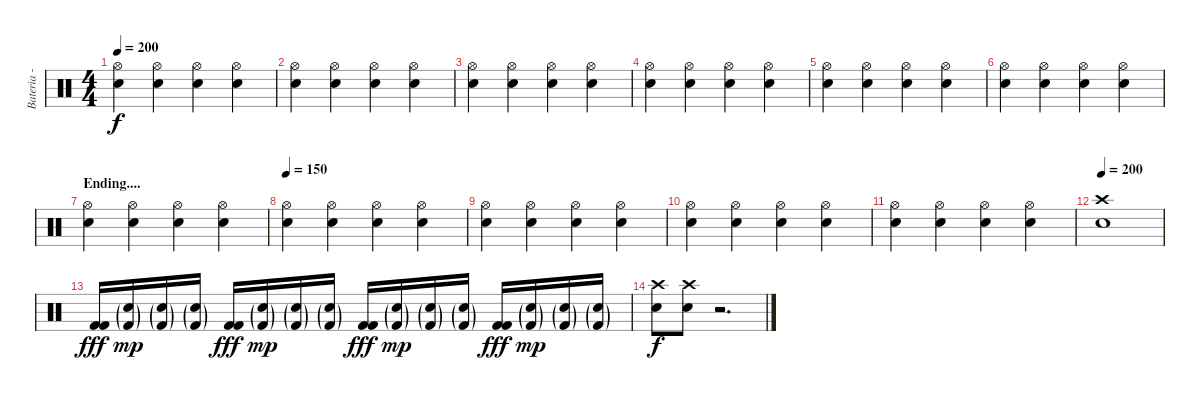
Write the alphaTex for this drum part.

\track ("Bateria - Larzon" "Bateria - ") {instrument percussion}
\staff {score}
\articulation defaults
\ts (4 4)
\tempo 200
\clef neutral
\ks c
("Snare (hit) 2" "Hi-Hat (open)").4{dy f} ("Snare (hit) 2" "Hi-Hat (open)").4 ("Snare (hit) 2" "Hi-Hat (open)").4 ("Snare (hit) 2" "Hi-Hat (open)").4 |
("Snare (hit) 2" "Hi-Hat (open)").4 ("Snare (hit) 2" "Hi-Hat (open)").4 ("Snare (hit) 2" "Hi-Hat (open)").4 ("Snare (hit) 2" "Hi-Hat (open)").4 |
("Snare (hit) 2" "Hi-Hat (open)").4 ("Snare (hit) 2" "Hi-Hat (open)").4 ("Snare (hit) 2" "Hi-Hat (open)").4 ("Snare (hit) 2" "Hi-Hat (open)").4 |
("Snare (hit) 2" "Hi-Hat (open)").4 ("Snare (hit) 2" "Hi-Hat (open)").4 ("Snare (hit) 2" "Hi-Hat (open)").4 ("Snare (hit) 2" "Hi-Hat (open)").4 |
("Snare (hit) 2" "Hi-Hat (open)").4 ("Snare (hit) 2" "Hi-Hat (open)").4 ("Snare (hit) 2" "Hi-Hat (open)").4 ("Snare (hit) 2" "Hi-Hat (open)").4 |
("Snare (hit) 2" "Hi-Hat (open)").4 ("Snare (hit) 2" "Hi-Hat (open)").4 ("Snare (hit) 2" "Hi-Hat (open)").4 ("Snare (hit) 2" "Hi-Hat (open)").4 |
\section ("" "Ending....")
("Snare (hit) 2" "Hi-Hat (open)").4 ("Snare (hit) 2" "Hi-Hat (open)").4 ("Snare (hit) 2" "Hi-Hat (open)").4 ("Snare (hit) 2" "Hi-Hat (open)").4 |
\tempo 150
("Snare (hit) 2" "Hi-Hat (open)").4 ("Snare (hit) 2" "Hi-Hat (open)").4 ("Snare (hit) 2" "Hi-Hat (open)").4 ("Snare (hit) 2" "Hi-Hat (open)").4 |
("Snare (hit) 2" "Hi-Hat (open)").4 ("Snare (hit) 2" "Hi-Hat (open)").4 ("Snare (hit) 2" "Hi-Hat (open)").4 ("Snare (hit) 2" "Hi-Hat (open)").4 |
("Snare (hit) 2" "Hi-Hat (open)").4 ("Snare (hit) 2" "Hi-Hat (open)").4 ("Snare (hit) 2" "Hi-Hat (open)").4 ("Snare (hit) 2" "Hi-Hat (open)").4 |
("Snare (hit) 2" "Hi-Hat (open)").4 ("Snare (hit) 2" "Hi-Hat (open)").4 ("Snare (hit) 2" "Hi-Hat (open)").4 ("Snare (hit) 2" "Hi-Hat (open)").4 |
\tempo 200
("Crash high (hit)" "Snare (hit) 2").1 |
("Kick (hit) 2" "Kick (hit) 2").16{dy fff} ("Kick (hit) 2"{g} "Snare (hit) 2"{g}).16{dy mp} ("Kick (hit) 2"{g} "Snare (hit) 2"{g}).16 ("Kick (hit) 2"{g} "Snare (hit) 2"{g}).16 ("Kick (hit) 2" "Kick (hit) 2").16{dy fff} ("Kick (hit) 2"{g} "Snare (hit) 2"{g}).16{dy mp} ("Kick (hit) 2"{g} "Snare (hit) 2"{g}).16 ("Kick (hit) 2"{g} "Snare (hit) 2"{g}).16 ("Kick (hit) 2" "Kick (hit) 2").16{dy fff} ("Kick (hit) 2"{g} "Snare (hit) 2"{g}).16{dy mp} ("Kick (hit) 2"{g} "Snare (hit) 2"{g}).16 ("Kick (hit) 2"{g} "Snare (hit) 2"{g}).16 ("Kick (hit) 2" "Kick (hit) 2").16{dy fff} ("Kick (hit) 2"{g} "Snare (hit) 2"{g}).16{dy mp} ("Kick (hit) 2"{g} "Snare (hit) 2"{g}).16 ("Kick (hit) 2"{g} "Snare (hit) 2"{g}).16 |
("Crash high (hit)" "Snare (hit) 2").8{dy f} ("Crash high (hit)" "Snare (hit) 2").8 r.2{d}
